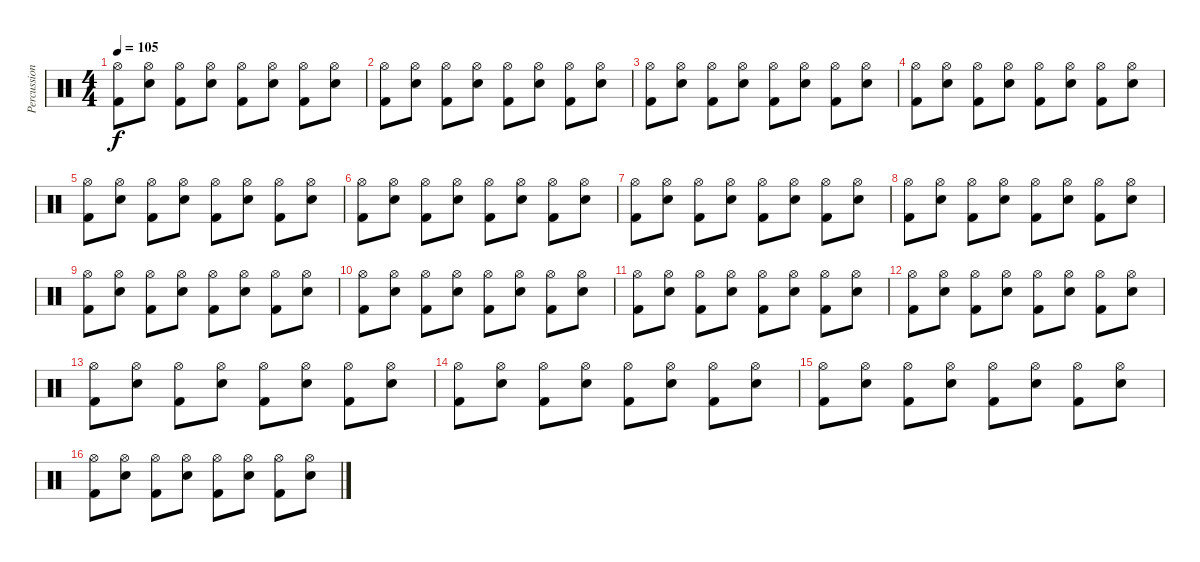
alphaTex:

\track ("Percussions" "Percussion") {instrument percussion}
\staff {score}
\articulation defaults
\ts (4 4)
\tempo 105
\clef neutral
\ks c
("Hi-Hat (open)" "Kick (hit) 2").8{dy f} ("Hi-Hat (open)" "Electric Snare (hit)").8 ("Hi-Hat (open)" "Kick (hit) 2").8 ("Hi-Hat (open)" "Electric Snare (hit)").8 ("Hi-Hat (open)" "Kick (hit) 2").8 ("Hi-Hat (open)" "Electric Snare (hit)").8 ("Hi-Hat (open)" "Kick (hit) 2").8 ("Hi-Hat (open)" "Electric Snare (hit)").8 |
("Hi-Hat (open)" "Kick (hit) 2").8 ("Hi-Hat (open)" "Electric Snare (hit)").8 ("Hi-Hat (open)" "Kick (hit) 2").8 ("Hi-Hat (open)" "Electric Snare (hit)").8 ("Hi-Hat (open)" "Kick (hit) 2").8 ("Hi-Hat (open)" "Electric Snare (hit)").8 ("Hi-Hat (open)" "Kick (hit) 2").8 ("Hi-Hat (open)" "Electric Snare (hit)").8 |
("Hi-Hat (open)" "Kick (hit) 2").8 ("Hi-Hat (open)" "Electric Snare (hit)").8 ("Hi-Hat (open)" "Kick (hit) 2").8 ("Hi-Hat (open)" "Electric Snare (hit)").8 ("Hi-Hat (open)" "Kick (hit) 2").8 ("Hi-Hat (open)" "Electric Snare (hit)").8 ("Hi-Hat (open)" "Kick (hit) 2").8 ("Hi-Hat (open)" "Electric Snare (hit)").8 |
("Hi-Hat (open)" "Kick (hit) 2").8 ("Hi-Hat (open)" "Electric Snare (hit)").8 ("Hi-Hat (open)" "Kick (hit) 2").8 ("Hi-Hat (open)" "Electric Snare (hit)").8 ("Hi-Hat (open)" "Kick (hit) 2").8 ("Hi-Hat (open)" "Electric Snare (hit)").8 ("Hi-Hat (open)" "Kick (hit) 2").8 ("Hi-Hat (open)" "Electric Snare (hit)").8 |
("Hi-Hat (open)" "Kick (hit) 2").8 ("Hi-Hat (open)" "Electric Snare (hit)").8 ("Hi-Hat (open)" "Kick (hit) 2").8 ("Hi-Hat (open)" "Electric Snare (hit)").8 ("Hi-Hat (open)" "Kick (hit) 2").8 ("Hi-Hat (open)" "Electric Snare (hit)").8 ("Hi-Hat (open)" "Kick (hit) 2").8 ("Hi-Hat (open)" "Electric Snare (hit)").8 |
("Hi-Hat (open)" "Kick (hit) 2").8 ("Hi-Hat (open)" "Electric Snare (hit)").8 ("Hi-Hat (open)" "Kick (hit) 2").8 ("Hi-Hat (open)" "Electric Snare (hit)").8 ("Hi-Hat (open)" "Kick (hit) 2").8 ("Hi-Hat (open)" "Electric Snare (hit)").8 ("Hi-Hat (open)" "Kick (hit) 2").8 ("Hi-Hat (open)" "Electric Snare (hit)").8 |
("Hi-Hat (open)" "Kick (hit) 2").8 ("Hi-Hat (open)" "Electric Snare (hit)").8 ("Hi-Hat (open)" "Kick (hit) 2").8 ("Hi-Hat (open)" "Electric Snare (hit)").8 ("Hi-Hat (open)" "Kick (hit) 2").8 ("Hi-Hat (open)" "Electric Snare (hit)").8 ("Hi-Hat (open)" "Kick (hit) 2").8 ("Hi-Hat (open)" "Electric Snare (hit)").8 |
("Hi-Hat (open)" "Kick (hit) 2").8 ("Hi-Hat (open)" "Electric Snare (hit)").8 ("Hi-Hat (open)" "Kick (hit) 2").8 ("Hi-Hat (open)" "Electric Snare (hit)").8 ("Hi-Hat (open)" "Kick (hit) 2").8 ("Hi-Hat (open)" "Electric Snare (hit)").8 ("Hi-Hat (open)" "Kick (hit) 2").8 ("Hi-Hat (open)" "Electric Snare (hit)").8 |
("Hi-Hat (open)" "Kick (hit) 2").8 ("Hi-Hat (open)" "Electric Snare (hit)").8 ("Hi-Hat (open)" "Kick (hit) 2").8 ("Hi-Hat (open)" "Electric Snare (hit)").8 ("Hi-Hat (open)" "Kick (hit) 2").8 ("Hi-Hat (open)" "Electric Snare (hit)").8 ("Hi-Hat (open)" "Kick (hit) 2").8 ("Hi-Hat (open)" "Electric Snare (hit)").8 |
("Hi-Hat (open)" "Kick (hit) 2").8 ("Hi-Hat (open)" "Electric Snare (hit)").8 ("Hi-Hat (open)" "Kick (hit) 2").8 ("Hi-Hat (open)" "Electric Snare (hit)").8 ("Hi-Hat (open)" "Kick (hit) 2").8 ("Hi-Hat (open)" "Electric Snare (hit)").8 ("Hi-Hat (open)" "Kick (hit) 2").8 ("Hi-Hat (open)" "Electric Snare (hit)").8 |
("Hi-Hat (open)" "Kick (hit) 2").8 ("Hi-Hat (open)" "Electric Snare (hit)").8 ("Hi-Hat (open)" "Kick (hit) 2").8 ("Hi-Hat (open)" "Electric Snare (hit)").8 ("Hi-Hat (open)" "Kick (hit) 2").8 ("Hi-Hat (open)" "Electric Snare (hit)").8 ("Hi-Hat (open)" "Kick (hit) 2").8 ("Hi-Hat (open)" "Electric Snare (hit)").8 |
("Hi-Hat (open)" "Kick (hit) 2").8 ("Hi-Hat (open)" "Electric Snare (hit)").8 ("Hi-Hat (open)" "Kick (hit) 2").8 ("Hi-Hat (open)" "Electric Snare (hit)").8 ("Hi-Hat (open)" "Kick (hit) 2").8 ("Hi-Hat (open)" "Electric Snare (hit)").8 ("Hi-Hat (open)" "Kick (hit) 2").8 ("Hi-Hat (open)" "Electric Snare (hit)").8 |
("Hi-Hat (open)" "Kick (hit) 2").8 ("Hi-Hat (open)" "Electric Snare (hit)").8 ("Hi-Hat (open)" "Kick (hit) 2").8 ("Hi-Hat (open)" "Electric Snare (hit)").8 ("Hi-Hat (open)" "Kick (hit) 2").8 ("Hi-Hat (open)" "Electric Snare (hit)").8 ("Hi-Hat (open)" "Kick (hit) 2").8 ("Hi-Hat (open)" "Electric Snare (hit)").8 |
("Hi-Hat (open)" "Kick (hit) 2").8 ("Hi-Hat (open)" "Electric Snare (hit)").8 ("Hi-Hat (open)" "Kick (hit) 2").8 ("Hi-Hat (open)" "Electric Snare (hit)").8 ("Hi-Hat (open)" "Kick (hit) 2").8 ("Hi-Hat (open)" "Electric Snare (hit)").8 ("Hi-Hat (open)" "Kick (hit) 2").8 ("Hi-Hat (open)" "Electric Snare (hit)").8 |
("Hi-Hat (open)" "Kick (hit) 2").8 ("Hi-Hat (open)" "Electric Snare (hit)").8 ("Hi-Hat (open)" "Kick (hit) 2").8 ("Hi-Hat (open)" "Electric Snare (hit)").8 ("Hi-Hat (open)" "Kick (hit) 2").8 ("Hi-Hat (open)" "Electric Snare (hit)").8 ("Hi-Hat (open)" "Kick (hit) 2").8 ("Hi-Hat (open)" "Electric Snare (hit)").8 |
("Hi-Hat (open)" "Kick (hit) 2").8 ("Hi-Hat (open)" "Electric Snare (hit)").8 ("Hi-Hat (open)" "Kick (hit) 2").8 ("Hi-Hat (open)" "Electric Snare (hit)").8 ("Hi-Hat (open)" "Kick (hit) 2").8 ("Hi-Hat (open)" "Electric Snare (hit)").8 ("Hi-Hat (open)" "Kick (hit) 2").8 ("Hi-Hat (open)" "Electric Snare (hit)").8
